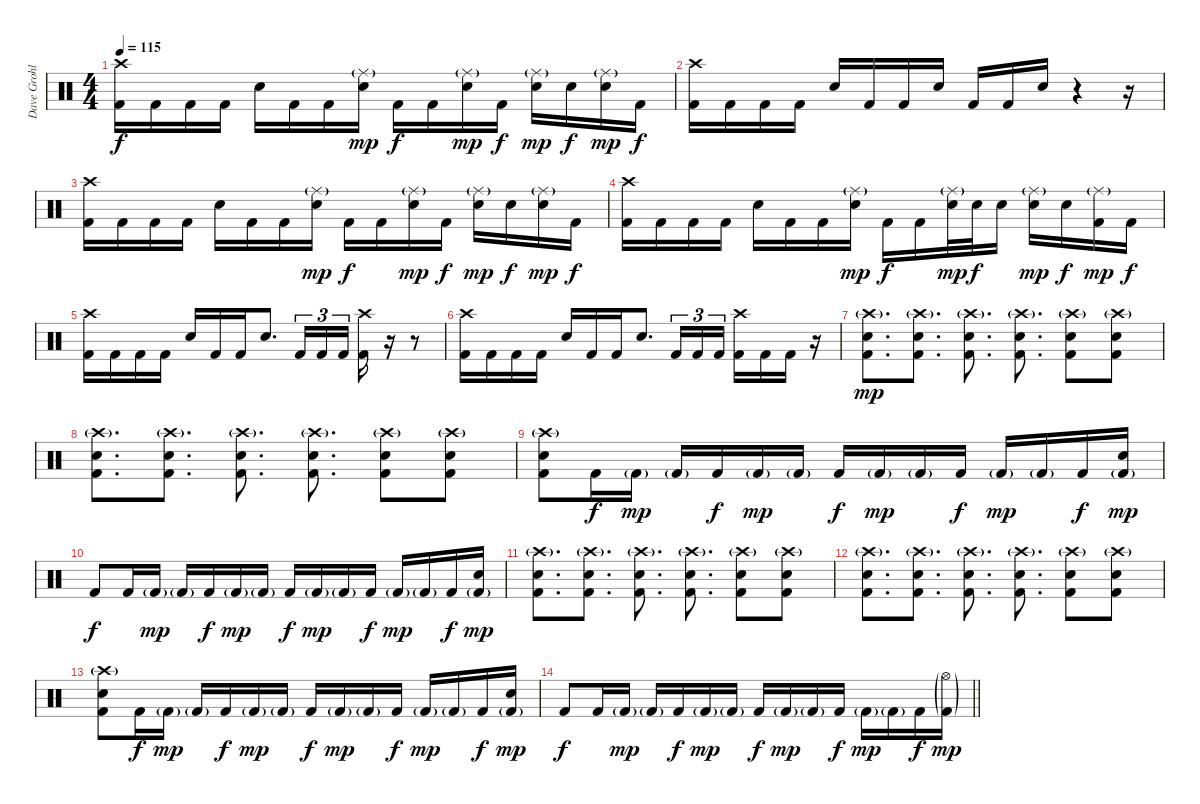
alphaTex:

\track ("Dave Grohl" "Dave Grohl") {instrument percussion}
\staff {score}
\articulation defaults
\ts (4 4)
\tempo 115
\clef neutral
\ks c
("Crash high (hit)" "Kick (hit) 2").16{dy f} "Kick (hit) 2".16 "Kick (hit) 2".16 "Kick (hit) 2".16 "Snare (hit) 2".16 "Kick (hit) 2".16 "Kick (hit) 2".16 ("Ride (middle)"{g} "Snare (hit) 2").16{dy mp} "Kick (hit) 2".16{dy f} "Kick (hit) 2".16 ("Ride (middle)"{g} "Snare (hit) 2").16{dy mp} "Kick (hit) 2".16{dy f} ("Ride (middle)"{g} "Snare (hit) 2").16{dy mp} "Snare (hit) 2".16{dy f} ("Ride (middle)"{g} "Snare (hit) 2").16{dy mp} "Kick (hit) 2".16{dy f} |
("Crash high (hit)" "Kick (hit) 2").16 "Kick (hit) 2".16 "Kick (hit) 2".16 "Kick (hit) 2".16 "Snare (hit) 2".16 "Kick (hit) 2".16 "Kick (hit) 2".16 "Snare (hit) 2".16 "Kick (hit) 2".16 "Kick (hit) 2".16 "Snare (hit) 2".16 r.4 r.16 |
("Crash high (hit)" "Kick (hit) 2").16 "Kick (hit) 2".16 "Kick (hit) 2".16 "Kick (hit) 2".16 "Snare (hit) 2".16 "Kick (hit) 2".16 "Kick (hit) 2".16 ("Ride (middle)"{g} "Snare (hit) 2").16{dy mp} "Kick (hit) 2".16{dy f} "Kick (hit) 2".16 ("Ride (middle)"{g} "Snare (hit) 2").16{dy mp} "Kick (hit) 2".16{dy f} ("Ride (middle)"{g} "Snare (hit) 2").16{dy mp} "Snare (hit) 2".16{dy f} ("Ride (middle)"{g} "Snare (hit) 2").16{dy mp} "Kick (hit) 2".16{dy f} |
("Crash high (hit)" "Kick (hit) 2").16 "Kick (hit) 2".16 "Kick (hit) 2".16 "Kick (hit) 2".16 "Snare (hit) 2".16 "Kick (hit) 2".16 "Kick (hit) 2".16 ("Ride (middle)"{g} "Snare (hit) 2").16{dy mp} "Kick (hit) 2".16{dy f} "Kick (hit) 2".16 ("Ride (middle)"{g} "Snare (hit) 2").32{dy mp} "Snare (hit) 2".32{dy f} "Snare (hit) 2".16 ("Ride (middle)"{g} "Snare (hit) 2").16{dy mp} "Snare (hit) 2".16{dy f} ("Ride (middle)"{g} "Kick (hit) 2").16{dy mp} "Kick (hit) 2".16{dy f} |
("Crash high (hit)" "Kick (hit) 2").16 "Kick (hit) 2".16 "Kick (hit) 2".16 "Kick (hit) 2".16 "Snare (hit) 2".16 "Kick (hit) 2".16 "Kick (hit) 2".16 "Snare (hit) 2".8{d} "Kick (hit) 2".16{tu (3 2)} "Kick (hit) 2".16{tu (3 2)} "Kick (hit) 2".16{tu (3 2)} ("Crash high (hit)" "Kick (hit) 2").16 r.16 r.8 |
("Crash high (hit)" "Kick (hit) 2").16 "Kick (hit) 2".16 "Kick (hit) 2".16 "Kick (hit) 2".16 "Snare (hit) 2".16 "Kick (hit) 2".16 "Kick (hit) 2".16 "Snare (hit) 2".8{d} "Kick (hit) 2".16{tu (3 2)} "Kick (hit) 2".16{tu (3 2)} "Kick (hit) 2".16{tu (3 2)} ("Crash high (hit)" "Kick (hit) 2").16 "Kick (hit) 2".16 "Kick (hit) 2".16 r.16 |
("Crash high (hit)"{g} "Snare (hit) 2" "Kick (hit) 2").8{d dy mp} ("Crash high (hit)"{g} "Snare (hit) 2" "Kick (hit) 2").8{d} ("Crash high (hit)"{g} "Snare (hit) 2" "Kick (hit) 2").8{d} ("Crash high (hit)"{g} "Snare (hit) 2" "Kick (hit) 2").8{d} ("Crash high (hit)"{g} "Snare (hit) 2" "Kick (hit) 2").8 ("Crash high (hit)"{g} "Snare (hit) 2" "Kick (hit) 2").8 |
("Crash high (hit)"{g} "Snare (hit) 2" "Kick (hit) 2").8{d} ("Crash high (hit)"{g} "Snare (hit) 2" "Kick (hit) 2").8{d} ("Crash high (hit)"{g} "Snare (hit) 2" "Kick (hit) 2").8{d} ("Crash high (hit)"{g} "Snare (hit) 2" "Kick (hit) 2").8{d} ("Crash high (hit)"{g} "Snare (hit) 2" "Kick (hit) 2").8 ("Crash high (hit)"{g} "Snare (hit) 2" "Kick (hit) 2").8 |
("Crash high (hit)"{g} "Snare (hit) 2" "Kick (hit) 2").8 "Kick (hit) 2".16{dy f} "Kick (hit) 2"{g}.16{dy mp} "Kick (hit) 2"{g}.16 "Kick (hit) 2".16{dy f} "Kick (hit) 2"{g}.16{dy mp} "Kick (hit) 2"{g}.16 "Kick (hit) 2".16{dy f} "Kick (hit) 2"{g}.16{dy mp} "Kick (hit) 2"{g}.16 "Kick (hit) 2".16{dy f} "Kick (hit) 2"{g}.16{dy mp} "Kick (hit) 2"{g}.16 "Kick (hit) 2".16{dy f} ("Snare (hit) 2" "Kick (hit) 2"{g}).16{dy mp} |
"Kick (hit) 2".8{dy f} "Kick (hit) 2".16 "Kick (hit) 2"{g}.16{dy mp} "Kick (hit) 2"{g}.16 "Kick (hit) 2".16{dy f} "Kick (hit) 2"{g}.16{dy mp} "Kick (hit) 2"{g}.16 "Kick (hit) 2".16{dy f} "Kick (hit) 2"{g}.16{dy mp} "Kick (hit) 2"{g}.16 "Kick (hit) 2".16{dy f} "Kick (hit) 2"{g}.16{dy mp} "Kick (hit) 2"{g}.16 "Kick (hit) 2".16{dy f} ("Snare (hit) 2" "Kick (hit) 2"{g}).16{dy mp} |
("Crash high (hit)"{g} "Snare (hit) 2" "Kick (hit) 2").8{d} ("Crash high (hit)"{g} "Snare (hit) 2" "Kick (hit) 2").8{d} ("Crash high (hit)"{g} "Snare (hit) 2" "Kick (hit) 2").8{d} ("Crash high (hit)"{g} "Snare (hit) 2" "Kick (hit) 2").8{d} ("Crash high (hit)"{g} "Snare (hit) 2" "Kick (hit) 2").8 ("Crash high (hit)"{g} "Snare (hit) 2" "Kick (hit) 2").8 |
("Crash high (hit)"{g} "Snare (hit) 2" "Kick (hit) 2").8{d} ("Crash high (hit)"{g} "Snare (hit) 2" "Kick (hit) 2").8{d} ("Crash high (hit)"{g} "Snare (hit) 2" "Kick (hit) 2").8{d} ("Crash high (hit)"{g} "Snare (hit) 2" "Kick (hit) 2").8{d} ("Crash high (hit)"{g} "Snare (hit) 2" "Kick (hit) 2").8 ("Crash high (hit)"{g} "Snare (hit) 2" "Kick (hit) 2").8 |
("Crash high (hit)"{g} "Snare (hit) 2" "Kick (hit) 2").8 "Kick (hit) 2".16{dy f} "Kick (hit) 2"{g}.16{dy mp} "Kick (hit) 2"{g}.16 "Kick (hit) 2".16{dy f} "Kick (hit) 2"{g}.16{dy mp} "Kick (hit) 2"{g}.16 "Kick (hit) 2".16{dy f} "Kick (hit) 2"{g}.16{dy mp} "Kick (hit) 2"{g}.16 "Kick (hit) 2".16{dy f} "Kick (hit) 2"{g}.16{dy mp} "Kick (hit) 2"{g}.16 "Kick (hit) 2".16{dy f} ("Snare (hit) 2" "Kick (hit) 2"{g}).16{dy mp} |
\barLineRight lightlight "Kick (hit) 2".8{dy f} "Kick (hit) 2".16 "Kick (hit) 2"{g}.16{dy mp} "Kick (hit) 2"{g}.16 "Kick (hit) 2".16{dy f} "Kick (hit) 2"{g}.16{dy mp} "Kick (hit) 2"{g}.16 "Kick (hit) 2".16{dy f} "Kick (hit) 2"{g}.16{dy mp} "Kick (hit) 2"{g}.16 "Kick (hit) 2".16{dy f} "Kick (hit) 2"{g}.16{dy mp} "Kick (hit) 2"{g}.16 "Kick (hit) 2".16{dy f}
("Hi-Hat (open)"{g} "Kick (hit) 2"{g}).16{dy mp}
